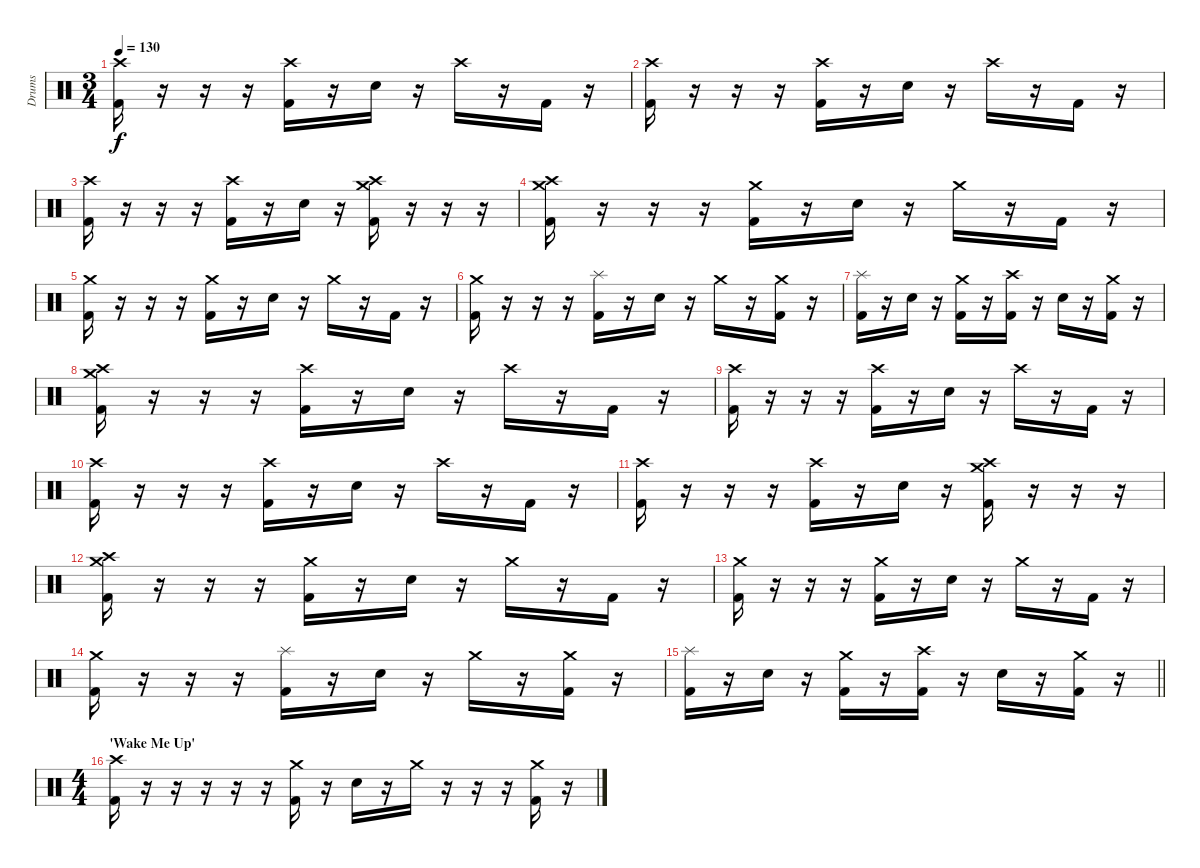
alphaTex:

\track ("Drums" "Drums") {instrument percussion}
\staff {score}
\articulation defaults
\ts (3 4)
\tempo 130
\clef neutral
\ks c
("Crash high (hit)" "Kick (hit) 2").16{dy f} r.16 r.16 r.16 ("Crash high (hit)" "Kick (hit) 2").16 r.16 "Electric Snare (hit)".16 r.16 "Crash high (hit)".16 r.16 "Kick (hit) 2".16 r.16 |
("Crash high (hit)" "Kick (hit) 2").16 r.16 r.16 r.16 ("Crash high (hit)" "Kick (hit) 2").16 r.16 "Electric Snare (hit)".16 r.16 "Crash high (hit)".16 r.16 "Kick (hit) 2".16 r.16 |
("Crash high (hit)" "Kick (hit) 2").16 r.16 r.16 r.16 ("Crash high (hit)" "Kick (hit) 2").16 r.16 "Electric Snare (hit)".16 r.16 ("Crash medium (hit)" "Crash high (hit)" "Kick (hit) 2").16 r.16 r.16 r.16 |
("Crash medium (hit)" "Crash high (hit)" "Kick (hit) 2").16 r.16 r.16 r.16 ("Crash medium (hit)" "Kick (hit) 2").16 r.16 "Electric Snare (hit)".16 r.16 "Crash medium (hit)".16 r.16 "Kick (hit) 2".16 r.16 |
("Crash medium (hit)" "Kick (hit) 2").16 r.16 r.16 r.16 ("Crash medium (hit)" "Kick (hit) 2").16 r.16 "Electric Snare (hit)".16 r.16 "Crash medium (hit)".16 r.16 "Kick (hit) 2".16 r.16 |
("Crash medium (hit)" "Kick (hit) 2").16 r.16 r.16 r.16 ("Splash (hit)" "Kick (hit) 2").16 r.16 "Electric Snare (hit)".16 r.16 "Crash medium (hit)".16 r.16 ("Crash medium (hit)" "Kick (hit) 2").16 r.16 |
("Splash (hit)" "Kick (hit) 2").16 r.16 "Electric Snare (hit)".16 r.16 ("Crash medium (hit)" "Kick (hit) 2").16 r.16 ("Crash high (hit)" "Kick (hit) 2").16 r.16 "Electric Snare (hit)".16 r.16 ("Crash medium (hit)" "Kick (hit) 2").16 r.16 |
("Crash medium (hit)" "Crash high (hit)" "Kick (hit) 2").16 r.16 r.16 r.16 ("Crash high (hit)" "Kick (hit) 2").16 r.16 "Electric Snare (hit)".16 r.16 "Crash high (hit)".16 r.16 "Kick (hit) 2".16 r.16 |
("Crash high (hit)" "Kick (hit) 2").16 r.16 r.16 r.16 ("Crash high (hit)" "Kick (hit) 2").16 r.16 "Electric Snare (hit)".16 r.16 "Crash high (hit)".16 r.16 "Kick (hit) 2".16 r.16 |
("Crash high (hit)" "Kick (hit) 2").16 r.16 r.16 r.16 ("Crash high (hit)" "Kick (hit) 2").16 r.16 "Electric Snare (hit)".16 r.16 "Crash high (hit)".16 r.16 "Kick (hit) 2".16 r.16 |
("Crash high (hit)" "Kick (hit) 2").16 r.16 r.16 r.16 ("Crash high (hit)" "Kick (hit) 2").16 r.16 "Electric Snare (hit)".16 r.16 ("Crash medium (hit)" "Crash high (hit)" "Kick (hit) 2").16 r.16 r.16 r.16 |
("Crash medium (hit)" "Crash high (hit)" "Kick (hit) 2").16 r.16 r.16 r.16 ("Crash medium (hit)" "Kick (hit) 2").16 r.16 "Electric Snare (hit)".16 r.16 "Crash medium (hit)".16 r.16 "Kick (hit) 2".16 r.16 |
("Crash medium (hit)" "Kick (hit) 2").16 r.16 r.16 r.16 ("Crash medium (hit)" "Kick (hit) 2").16 r.16 "Electric Snare (hit)".16 r.16 "Crash medium (hit)".16 r.16 "Kick (hit) 2".16 r.16 |
("Crash medium (hit)" "Kick (hit) 2").16 r.16 r.16 r.16 ("Splash (hit)" "Kick (hit) 2").16 r.16 "Electric Snare (hit)".16 r.16 "Crash medium (hit)".16 r.16 ("Crash medium (hit)" "Kick (hit) 2").16 r.16 |
\barLineRight lightlight
("Splash (hit)" "Kick (hit) 2").16 r.16 "Electric Snare (hit)".16 r.16 ("Crash medium (hit)" "Kick (hit) 2").16 r.16 ("Crash high (hit)" "Kick (hit) 2").16 r.16 "Electric Snare (hit)".16 r.16 ("Crash medium (hit)" "Kick (hit) 2").16 r.16 |
\ts (4 4)
\section ("" "'Wake Me Up'")
("Crash high (hit)" "Kick (hit) 2").16 r.16 r.16 r.16 r.16 r.16 ("Crash medium (hit)" "Kick (hit) 2").16 r.16 "Electric Snare (hit)".16 r.16 "Crash medium (hit)".16 r.16 r.16 r.16 ("Crash medium (hit)" "Kick (hit) 2").16 r.16
